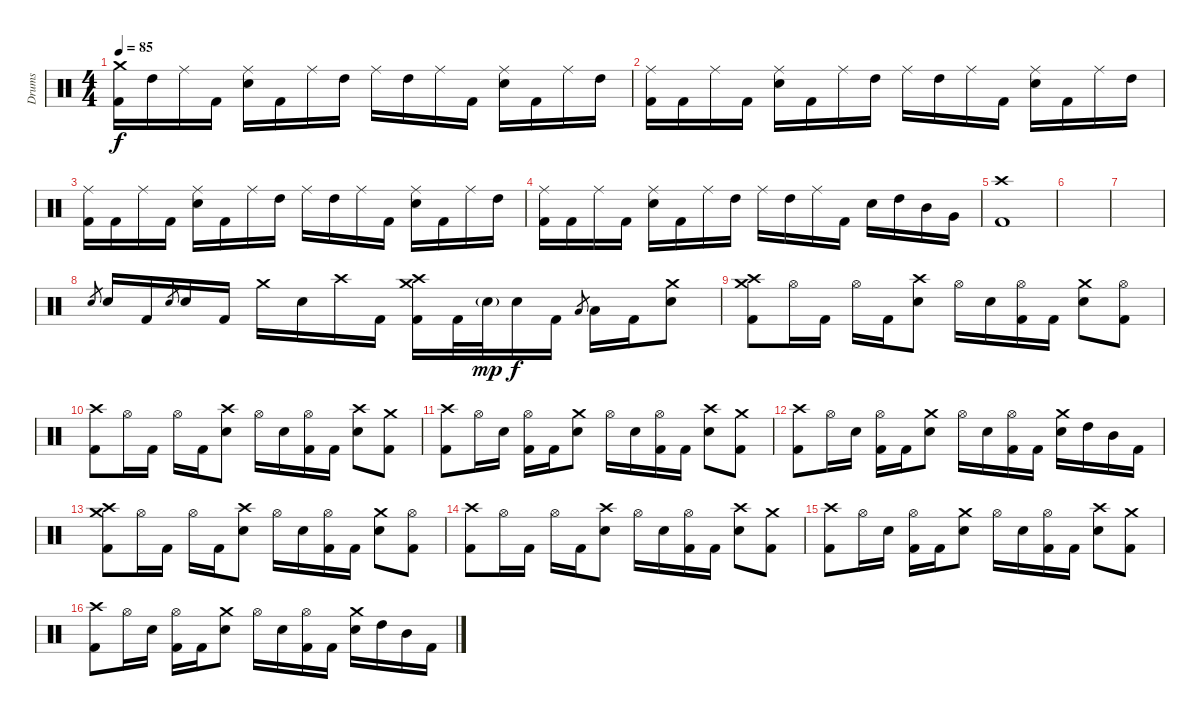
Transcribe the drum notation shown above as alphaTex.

\track ("Drums" "Drums") {instrument percussion}
\staff {score}
\articulation defaults
\ts (4 4)
\tempo 85
\clef neutral
\ks c
("Crash medium (hit)" "Kick (hit) 2").16{dy f} "High Tom (hit)".16 "Ride (middle)".16 "Kick (hit) 2".16 ("Ride (middle)" "Snare (hit) 2").16 "Kick (hit) 2".16 "Ride (middle)".16 "High Tom (hit)".16 "Ride (middle)".16 "High Tom (hit)".16 "Ride (middle)".16 "Kick (hit) 2".16 ("Ride (middle)" "Snare (hit) 2").16 "Kick (hit) 2".16 "Ride (middle)".16 "High Tom (hit)".16 |
("Ride (middle)" "Kick (hit) 2").16 "Kick (hit) 2".16 "Ride (middle)".16 "Kick (hit) 2".16 ("Ride (middle)" "Snare (hit) 2").16 "Kick (hit) 2".16 "Ride (middle)".16 "High Tom (hit)".16 "Ride (middle)".16 "High Tom (hit)".16 "Ride (middle)".16 "Kick (hit) 2".16 ("Ride (middle)" "Snare (hit) 2").16 "Kick (hit) 2".16 "Ride (middle)".16 "High Tom (hit)".16 |
("Ride (middle)" "Kick (hit) 2").16 "Kick (hit) 2".16 "Ride (middle)".16 "Kick (hit) 2".16 ("Ride (middle)" "Snare (hit) 2").16 "Kick (hit) 2".16 "Ride (middle)".16 "High Tom (hit)".16 "Ride (middle)".16 "High Tom (hit)".16 "Ride (middle)".16 "Kick (hit) 2".16 ("Ride (middle)" "Snare (hit) 2").16 "Kick (hit) 2".16 "Ride (middle)".16 "High Tom (hit)".16 |
("Ride (middle)" "Kick (hit) 2").16 "Kick (hit) 2".16 "Ride (middle)".16 "Kick (hit) 2".16 ("Ride (middle)" "Snare (hit) 2").16 "Kick (hit) 2".16 "Ride (middle)".16 "High Tom (hit)".16 "Ride (middle)".16 "High Tom (hit)".16 "Ride (middle)".16 "Kick (hit) 2".16 "Snare (hit) 2".16 "High Tom (hit)".16 "Mid Tom (hit)".16 "Very Low Tom (hit)".16 |
("Crash high (hit)" "Kick (hit) 2").1 |
|
|
"Snare (hit) 2".8{gr} "Snare (hit) 2".16 "Kick (hit) 2".16 "Snare (hit) 2".8{gr} "Snare (hit) 2".16 "Kick (hit) 2".16 "Crash medium (hit)".16 "Electric Snare (hit)".16 "Crash high (hit)".16 "Kick (hit) 2".16 ("Crash high (hit)" "Crash medium (hit)" "Kick (hit) 2").16 "Kick (hit) 2".32 "Snare (hit) 2"{g}.32{dy mp} "Snare (hit) 2".16{dy f} "Kick (hit) 2".16 "Low Floor Tom (hit)".8{gr} "Low Tom (hit)".16 "Kick (hit) 2".16 ("Crash medium (hit)" "Electric Snare (hit)").8 |
("Crash medium (hit)" "Crash high (hit)" "Kick (hit) 2").8 "Hi-Hat (open)".16 "Kick (hit) 2".16 "Hi-Hat (open)".16 "Kick (hit) 2".16 ("Crash high (hit)" "Electric Snare (hit)").8 "Hi-Hat (open)".16 "Electric Snare (hit)".16 ("Hi-Hat (open)" "Kick (hit) 2").16 "Kick (hit) 2".16 ("Crash medium (hit)" "Electric Snare (hit)").8 ("Hi-Hat (open)" "Kick (hit) 2").8 |
("Crash high (hit)" "Kick (hit) 2").8 "Hi-Hat (open)".16 "Kick (hit) 2".16 "Hi-Hat (open)".16 "Kick (hit) 2".16 ("Crash high (hit)" "Electric Snare (hit)").8 "Hi-Hat (open)".16 "Electric Snare (hit)".16 ("Hi-Hat (open)" "Kick (hit) 2").16 "Kick (hit) 2".16 ("Crash high (hit)" "Electric Snare (hit)").8 ("Crash medium (hit)" "Kick (hit) 2").8 |
("Crash high (hit)" "Kick (hit) 2").8 "Hi-Hat (open)".16 "Electric Snare (hit)".16 ("Hi-Hat (open)" "Kick (hit) 2").16 "Kick (hit) 2".16 ("Crash medium (hit)" "Electric Snare (hit)").8 "Hi-Hat (open)".16 "Electric Snare (hit)".16 ("Hi-Hat (open)" "Kick (hit) 2").16 "Kick (hit) 2".16 ("Crash high (hit)" "Electric Snare (hit)").8 ("Crash medium (hit)" "Kick (hit) 2").8 |
("Crash high (hit)" "Kick (hit) 2").8 "Hi-Hat (open)".16 "Electric Snare (hit)".16 ("Hi-Hat (open)" "Kick (hit) 2").16 "Kick (hit) 2".16 ("Crash medium (hit)" "Electric Snare (hit)").8 "Hi-Hat (open)".16 "Electric Snare (hit)".16 ("Hi-Hat (open)" "Kick (hit) 2").16 "Kick (hit) 2".16 ("Crash medium (hit)" "Electric Snare (hit)").16 "High Tom (hit)".16 "Mid Tom (hit)".16 "Kick (hit) 2".16 |
("Crash medium (hit)" "Crash high (hit)" "Kick (hit) 2").8 "Hi-Hat (open)".16 "Kick (hit) 2".16 "Hi-Hat (open)".16 "Kick (hit) 2".16 ("Crash high (hit)" "Electric Snare (hit)").8 "Hi-Hat (open)".16 "Electric Snare (hit)".16 ("Hi-Hat (open)" "Kick (hit) 2").16 "Kick (hit) 2".16 ("Crash medium (hit)" "Electric Snare (hit)").8 ("Hi-Hat (open)" "Kick (hit) 2").8 |
("Crash high (hit)" "Kick (hit) 2").8 "Hi-Hat (open)".16 "Kick (hit) 2".16 "Hi-Hat (open)".16 "Kick (hit) 2".16 ("Crash high (hit)" "Electric Snare (hit)").8 "Hi-Hat (open)".16 "Electric Snare (hit)".16 ("Hi-Hat (open)" "Kick (hit) 2").16 "Kick (hit) 2".16 ("Crash high (hit)" "Electric Snare (hit)").8 ("Crash medium (hit)" "Kick (hit) 2").8 |
("Crash high (hit)" "Kick (hit) 2").8 "Hi-Hat (open)".16 "Electric Snare (hit)".16 ("Hi-Hat (open)" "Kick (hit) 2").16 "Kick (hit) 2".16 ("Crash medium (hit)" "Electric Snare (hit)").8 "Hi-Hat (open)".16 "Electric Snare (hit)".16 ("Hi-Hat (open)" "Kick (hit) 2").16 "Kick (hit) 2".16 ("Crash high (hit)" "Electric Snare (hit)").8 ("Crash medium (hit)" "Kick (hit) 2").8 |
("Crash high (hit)" "Kick (hit) 2").8 "Hi-Hat (open)".16 "Electric Snare (hit)".16 ("Hi-Hat (open)" "Kick (hit) 2").16 "Kick (hit) 2".16 ("Crash medium (hit)" "Electric Snare (hit)").8 "Hi-Hat (open)".16 "Electric Snare (hit)".16 ("Hi-Hat (open)" "Kick (hit) 2").16 "Kick (hit) 2".16 ("Crash medium (hit)" "Electric Snare (hit)").16 "High Tom (hit)".16 "Mid Tom (hit)".16 "Kick (hit) 2".16
